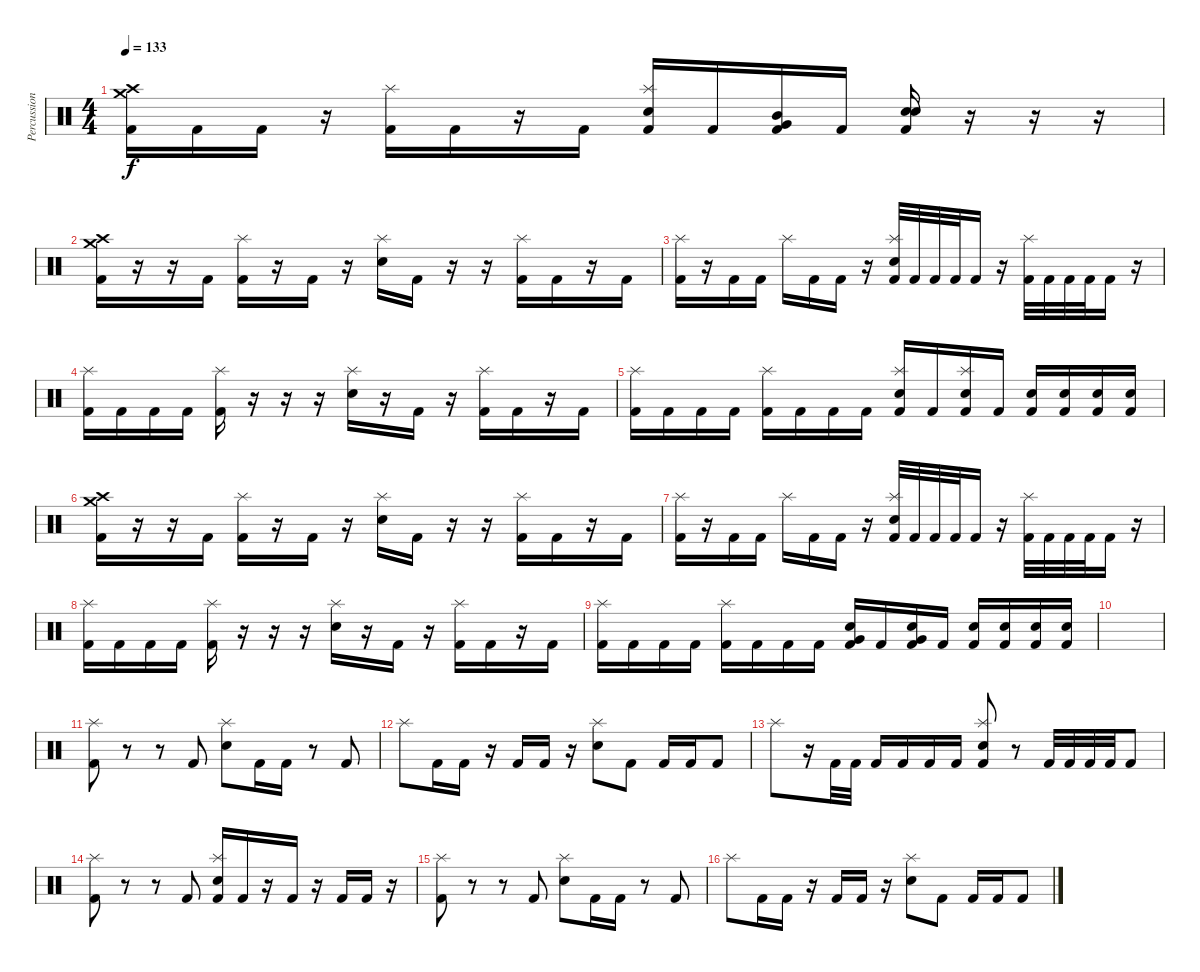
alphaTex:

\track ("Percussion" "Percussion") {instrument percussion}
\staff {score}
\articulation defaults
\ts (4 4)
\tempo 133
\clef neutral
\ks c
("Kick (hit) 2" "Crash medium (hit)" "Crash high (hit)").16{dy f} "Kick (hit) 2".16 "Kick (hit) 2".16 r.16 ("Kick (hit) 2" "Splash (hit)").16 "Kick (hit) 2".16 r.16 "Kick (hit) 2".16 ("Kick (hit) 2" "Electric Snare (hit)" "Splash (hit)").16 "Kick (hit) 2".16 ("Kick (hit) 2" "Very Low Tom (hit)" "Mid Tom (hit)").16 "Kick (hit) 2".16 ("Kick (hit) 2" "Electric Snare (hit)" "Electric Snare (hit)").16 r.16 r.16 r.16 |
("Kick (hit) 2" "Crash medium (hit)" "Crash high (hit)").16 r.16 r.16 "Kick (hit) 2".16 ("Kick (hit) 2" "Splash (hit)").16 r.16 "Kick (hit) 2".16 r.16 ("Electric Snare (hit)" "Splash (hit)").16 "Kick (hit) 2".16 r.16 r.16 ("Kick (hit) 2" "Splash (hit)").16 "Kick (hit) 2".16 r.16 "Kick (hit) 2".16 |
("Kick (hit) 2" "Splash (hit)").16 r.16 "Kick (hit) 2".16 "Kick (hit) 2".16 "Splash (hit)".16 "Kick (hit) 2".16 "Kick (hit) 2".16 r.16 ("Kick (hit) 2" "Electric Snare (hit)" "Splash (hit)").32 "Kick (hit) 2".32 "Kick (hit) 2".32 "Kick (hit) 2".32 "Kick (hit) 2".16 r.16 ("Kick (hit) 2" "Splash (hit)").32 "Kick (hit) 2".32 "Kick (hit) 2".32 "Kick (hit) 2".32 "Kick (hit) 2".16 r.16 |
("Kick (hit) 2" "Splash (hit)").16 "Kick (hit) 2".16 "Kick (hit) 2".16 "Kick (hit) 2".16 ("Kick (hit) 2" "Splash (hit)").16 r.16 r.16 r.16 ("Electric Snare (hit)" "Splash (hit)").16 r.16 "Kick (hit) 2".16 r.16 ("Kick (hit) 2" "Splash (hit)").16 "Kick (hit) 2".16 r.16 "Kick (hit) 2".16 |
("Kick (hit) 2" "Splash (hit)").16 "Kick (hit) 2".16 "Kick (hit) 2".16 "Kick (hit) 2".16 ("Kick (hit) 2" "Splash (hit)").16 "Kick (hit) 2".16 "Kick (hit) 2".16 "Kick (hit) 2".16 ("Kick (hit) 2" "Electric Snare (hit)" "Splash (hit)").16 "Kick (hit) 2".16 ("Kick (hit) 2" "Electric Snare (hit)" "Splash (hit)").16 "Kick (hit) 2".16 ("Kick (hit) 2" "Electric Snare (hit)").16 ("Kick (hit) 2" "Electric Snare (hit)").16 ("Kick (hit) 2" "Electric Snare (hit)").16 ("Kick (hit) 2" "Electric Snare (hit)").16 |
("Kick (hit) 2" "Crash medium (hit)" "Crash high (hit)").16 r.16 r.16 "Kick (hit) 2".16 ("Kick (hit) 2" "Splash (hit)").16 r.16 "Kick (hit) 2".16 r.16 ("Electric Snare (hit)" "Splash (hit)").16 "Kick (hit) 2".16 r.16 r.16 ("Kick (hit) 2" "Splash (hit)").16 "Kick (hit) 2".16 r.16 "Kick (hit) 2".16 |
("Kick (hit) 2" "Splash (hit)").16 r.16 "Kick (hit) 2".16 "Kick (hit) 2".16 "Splash (hit)".16 "Kick (hit) 2".16 "Kick (hit) 2".16 r.16 ("Kick (hit) 2" "Electric Snare (hit)" "Splash (hit)").32 "Kick (hit) 2".32 "Kick (hit) 2".32 "Kick (hit) 2".32 "Kick (hit) 2".16 r.16 ("Kick (hit) 2" "Splash (hit)").32 "Kick (hit) 2".32 "Kick (hit) 2".32 "Kick (hit) 2".32 "Kick (hit) 2".16 r.16 |
("Kick (hit) 2" "Splash (hit)").16 "Kick (hit) 2".16 "Kick (hit) 2".16 "Kick (hit) 2".16 ("Kick (hit) 2" "Splash (hit)").16 r.16 r.16 r.16 ("Electric Snare (hit)" "Splash (hit)").16 r.16 "Kick (hit) 2".16 r.16 ("Kick (hit) 2" "Splash (hit)").16 "Kick (hit) 2".16 r.16 "Kick (hit) 2".16 |
("Kick (hit) 2" "Splash (hit)").16 "Kick (hit) 2".16 "Kick (hit) 2".16 "Kick (hit) 2".16 ("Kick (hit) 2" "Splash (hit)").16 "Kick (hit) 2".16 "Kick (hit) 2".16 "Kick (hit) 2".16 ("Kick (hit) 2" "Electric Snare (hit)" "Very Low Tom (hit)").16 "Kick (hit) 2".16 ("Kick (hit) 2" "Electric Snare (hit)" "Very Low Tom (hit)").16 "Kick (hit) 2".16 ("Kick (hit) 2" "Electric Snare (hit)").16 ("Kick (hit) 2" "Electric Snare (hit)").16 ("Kick (hit) 2" "Electric Snare (hit)").16 ("Kick (hit) 2" "Electric Snare (hit)").16 |
|
("Kick (hit) 2" "Splash (hit)").8 r.8 r.8 "Kick (hit) 2".8 ("Electric Snare (hit)" "Splash (hit)").8 "Kick (hit) 2".16 "Kick (hit) 2".16 r.8 "Kick (hit) 2".8 |
"Splash (hit)".8 "Kick (hit) 2".16 "Kick (hit) 2".16 r.16 "Kick (hit) 2".16 "Kick (hit) 2".16 r.16 ("Electric Snare (hit)" "Splash (hit)").8 "Kick (hit) 2".8 "Kick (hit) 2".16 "Kick (hit) 2".16 "Kick (hit) 2".8 |
"Splash (hit)".8 r.16 "Kick (hit) 2".32 "Kick (hit) 2".32 "Kick (hit) 2".16 "Kick (hit) 2".16 "Kick (hit) 2".16 "Kick (hit) 2".16 ("Kick (hit) 2" "Electric Snare (hit)" "Splash (hit)").8 r.8 "Kick (hit) 2".32 "Kick (hit) 2".32 "Kick (hit) 2".32 "Kick (hit) 2".32 "Kick (hit) 2".8 |
("Kick (hit) 2" "Splash (hit)").8 r.8 r.8 "Kick (hit) 2".8 ("Kick (hit) 2" "Electric Snare (hit)" "Splash (hit)").16 "Kick (hit) 2".16 r.16 "Kick (hit) 2".16 r.16 "Kick (hit) 2".16 "Kick (hit) 2".16 r.16 |
("Kick (hit) 2" "Splash (hit)").8 r.8 r.8 "Kick (hit) 2".8 ("Electric Snare (hit)" "Splash (hit)").8 "Kick (hit) 2".16 "Kick (hit) 2".16 r.8 "Kick (hit) 2".8 |
"Splash (hit)".8 "Kick (hit) 2".16 "Kick (hit) 2".16 r.16 "Kick (hit) 2".16 "Kick (hit) 2".16 r.16 ("Electric Snare (hit)" "Splash (hit)").8 "Kick (hit) 2".8 "Kick (hit) 2".16 "Kick (hit) 2".16 "Kick (hit) 2".8
